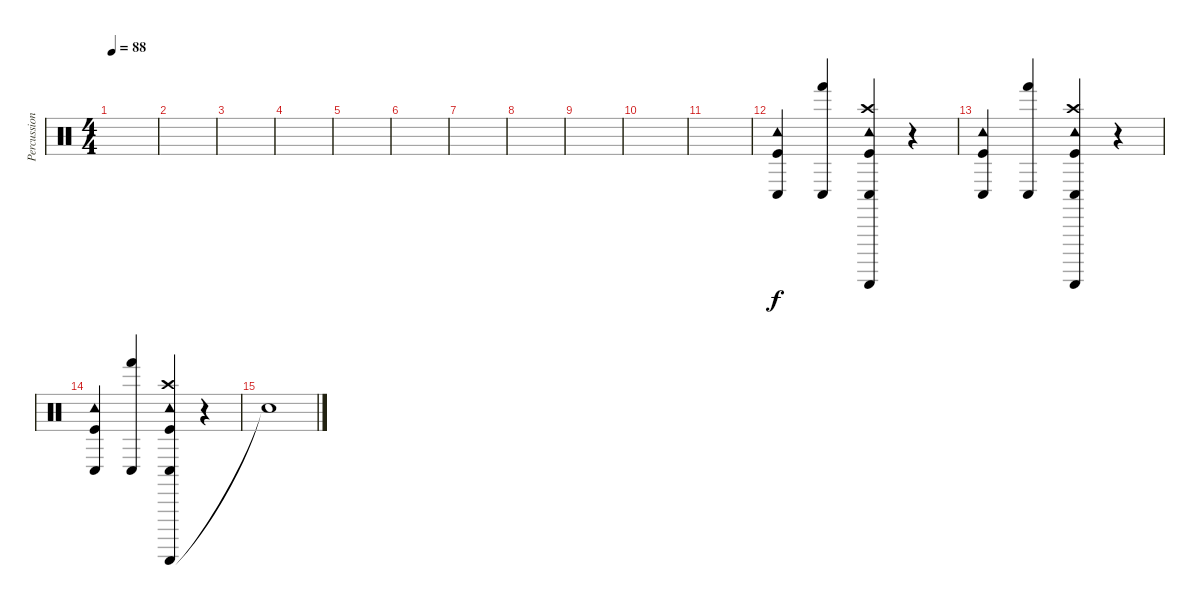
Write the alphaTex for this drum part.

\track ("Percussion" "Percussion") {instrument percussion}
\staff {score}
\articulation defaults
\ts (4 4)
\tempo 88
\clef neutral
\ks c
|
|
|
|
|
|
|
|
|
|
|
("Conga low (hit)" "Tambourine (hit)" "Kick (hit)").4 ("Hand (hit)" "Conga low (hit)").4 ("Guiro (scrap-return)" "Crash high (hit)" "Tambourine (hit)" "Conga low (hit)" "Kick (hit)").4 r.4 |
("Conga low (hit)" "Tambourine (hit)" "Kick (hit)").4 ("Hand (hit)" "Conga low (hit)").4 ("Guiro (scrap-return)" "Crash high (hit)" "Tambourine (hit)" "Conga low (hit)" "Kick (hit)").4 r.4 |
("Conga low (hit)" "Tambourine (hit)" "Kick (hit)").4 ("Hand (hit)" "Conga low (hit)").4 ("Guiro (scrap-return)" "Crash high (hit)" "Tambourine (hit)" "Conga low (hit)" "Kick (hit)").4 r.4 |
"Snare (hit)"{t}.1
